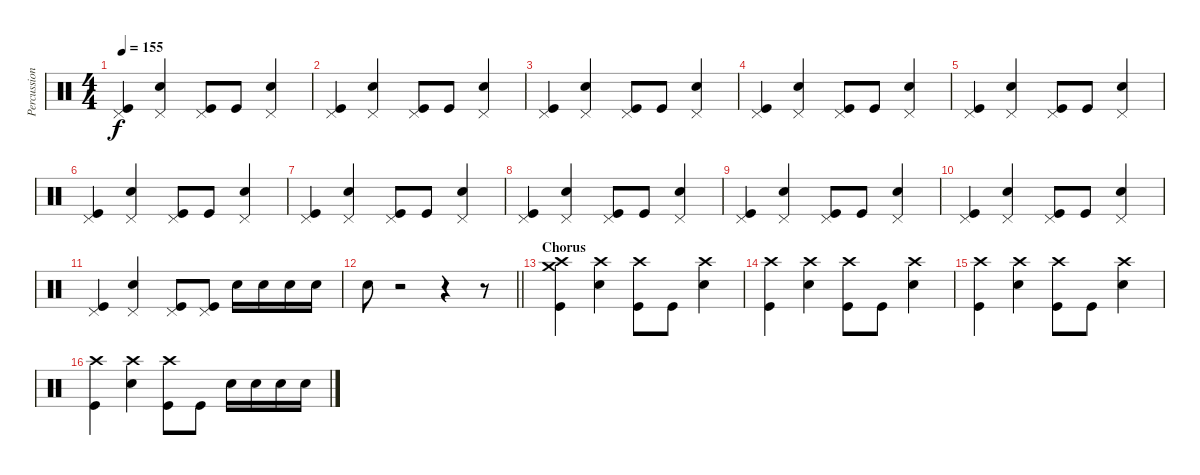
\track ("Percussion" "Percussion") {instrument percussion}
\staff {score}
\articulation defaults
\ts (4 4)
\tempo 155
\clef neutral
\ks c
("Pedal Hi-Hat (hit)" "Kick (hit)").4{dy f} ("Pedal Hi-Hat (hit)" "Electric Snare (hit)").4 ("Pedal Hi-Hat (hit)" "Kick (hit)").8 "Kick (hit)".8 ("Pedal Hi-Hat (hit)" "Electric Snare (hit)").4 |
("Pedal Hi-Hat (hit)" "Kick (hit)").4 ("Pedal Hi-Hat (hit)" "Electric Snare (hit)").4 ("Pedal Hi-Hat (hit)" "Kick (hit)").8 "Kick (hit)".8 ("Pedal Hi-Hat (hit)" "Electric Snare (hit)").4 |
("Pedal Hi-Hat (hit)" "Kick (hit)").4 ("Pedal Hi-Hat (hit)" "Electric Snare (hit)").4 ("Pedal Hi-Hat (hit)" "Kick (hit)").8 "Kick (hit)".8 ("Pedal Hi-Hat (hit)" "Electric Snare (hit)").4 |
("Pedal Hi-Hat (hit)" "Kick (hit)").4 ("Pedal Hi-Hat (hit)" "Electric Snare (hit)").4 ("Pedal Hi-Hat (hit)" "Kick (hit)").8 "Kick (hit)".8 ("Pedal Hi-Hat (hit)" "Electric Snare (hit)").4 |
("Pedal Hi-Hat (hit)" "Kick (hit)").4 ("Pedal Hi-Hat (hit)" "Electric Snare (hit)").4 ("Pedal Hi-Hat (hit)" "Kick (hit)").8 "Kick (hit)".8 ("Pedal Hi-Hat (hit)" "Electric Snare (hit)").4 |
("Pedal Hi-Hat (hit)" "Kick (hit)").4 ("Pedal Hi-Hat (hit)" "Electric Snare (hit)").4 ("Pedal Hi-Hat (hit)" "Kick (hit)").8 "Kick (hit)".8 ("Pedal Hi-Hat (hit)" "Electric Snare (hit)").4 |
("Pedal Hi-Hat (hit)" "Kick (hit)").4 ("Pedal Hi-Hat (hit)" "Electric Snare (hit)").4 ("Pedal Hi-Hat (hit)" "Kick (hit)").8 "Kick (hit)".8 ("Pedal Hi-Hat (hit)" "Electric Snare (hit)").4 |
("Pedal Hi-Hat (hit)" "Kick (hit)").4 ("Pedal Hi-Hat (hit)" "Electric Snare (hit)").4 ("Pedal Hi-Hat (hit)" "Kick (hit)").8 "Kick (hit)".8 ("Pedal Hi-Hat (hit)" "Electric Snare (hit)").4 |
("Pedal Hi-Hat (hit)" "Kick (hit)").4 ("Pedal Hi-Hat (hit)" "Electric Snare (hit)").4 ("Pedal Hi-Hat (hit)" "Kick (hit)").8 "Kick (hit)".8 ("Pedal Hi-Hat (hit)" "Electric Snare (hit)").4 |
("Pedal Hi-Hat (hit)" "Kick (hit)").4 ("Pedal Hi-Hat (hit)" "Electric Snare (hit)").4 ("Pedal Hi-Hat (hit)" "Kick (hit)").8 "Kick (hit)".8 ("Pedal Hi-Hat (hit)" "Electric Snare (hit)").4 |
("Pedal Hi-Hat (hit)" "Kick (hit)").4 ("Pedal Hi-Hat (hit)" "Electric Snare (hit)").4 ("Pedal Hi-Hat (hit)" "Kick (hit)").8 ("Pedal Hi-Hat (hit)" "Kick (hit)").8 "Electric Snare (hit)".16 "Electric Snare (hit)".16 "Electric Snare (hit)".16 "Electric Snare (hit)".16 |
\barLineRight lightlight "Electric Snare (hit)".8
r.2 r.4 r.8 |
\section ("" "Chorus")
("Crash high (hit)" "Crash medium (hit)" "Kick (hit)").4 ("Crash high (hit)" "Electric Snare (hit)").4 ("Crash high (hit)" "Kick (hit)").8 "Kick (hit)".8 ("Crash high (hit)" "Electric Snare (hit)").4 |
("Crash high (hit)" "Kick (hit)").4 ("Crash high (hit)" "Electric Snare (hit)").4 ("Crash high (hit)" "Kick (hit)").8 "Kick (hit)".8 ("Crash high (hit)" "Electric Snare (hit)").4 |
("Crash high (hit)" "Kick (hit)").4 ("Crash high (hit)" "Electric Snare (hit)").4 ("Crash high (hit)" "Kick (hit)").8 "Kick (hit)".8 ("Crash high (hit)" "Electric Snare (hit)").4 |
("Crash high (hit)" "Kick (hit)").4 ("Crash high (hit)" "Electric Snare (hit)").4 ("Crash high (hit)" "Kick (hit)").8 "Kick (hit)".8 "Electric Snare (hit)".16 "Electric Snare (hit)".16 "Electric Snare (hit)".16 "Electric Snare (hit)".16
